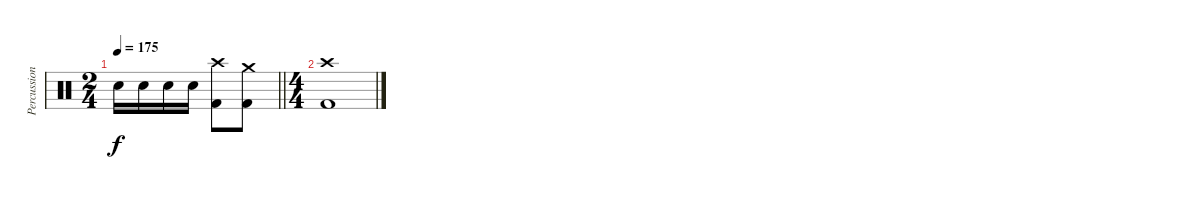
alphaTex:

\track ("Percussion" "Percussion") {instrument percussion}
\staff {score}
\articulation defaults
\ts (2 4)
\tempo 175
\clef neutral
\barLineRight lightlight
\ks c "Electric Snare (hit)".16{dy f} "Electric Snare (hit)".16 "Electric Snare (hit)".16 "Electric Snare (hit)".16
("Crash high (hit)" "Kick (hit) 2").8 ("Crash medium (hit)" "Kick (hit) 2").8 |
\ts (4 4)
("Crash high (hit)" "Kick (hit) 2").1
